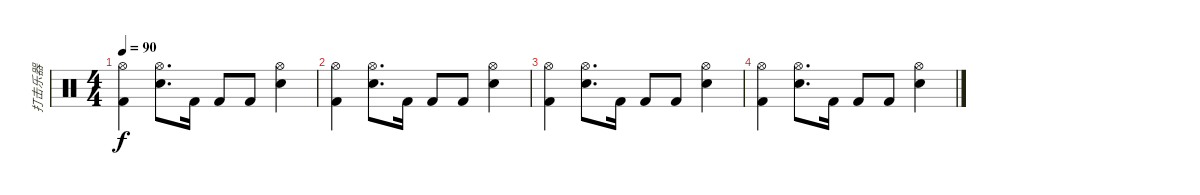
\track ("打击乐器" "打击乐器") {instrument percussion}
\staff {score}
\articulation defaults
\ts (4 4)
\tempo 90
\clef neutral
\ks c
("Hi-Hat (open)" "Kick (hit) 2").4{dy f} ("Electric Snare (hit)" "Hi-Hat (open)").8{d} "Kick (hit) 2".16 "Kick (hit) 2".8 "Kick (hit) 2".8 ("Electric Snare (hit)" "Hi-Hat (open)").4 |
("Hi-Hat (open)" "Kick (hit) 2").4 ("Electric Snare (hit)" "Hi-Hat (open)").8{d} "Kick (hit) 2".16 "Kick (hit) 2".8 "Kick (hit) 2".8 ("Electric Snare (hit)" "Hi-Hat (open)").4 |
("Hi-Hat (open)" "Kick (hit) 2").4 ("Electric Snare (hit)" "Hi-Hat (open)").8{d} "Kick (hit) 2".16 "Kick (hit) 2".8 "Kick (hit) 2".8 ("Electric Snare (hit)" "Hi-Hat (open)").4 |
("Hi-Hat (open)" "Kick (hit) 2").4 ("Electric Snare (hit)" "Hi-Hat (open)").8{d} "Kick (hit) 2".16 "Kick (hit) 2".8 "Kick (hit) 2".8 ("Electric Snare (hit)" "Hi-Hat (open)").4
